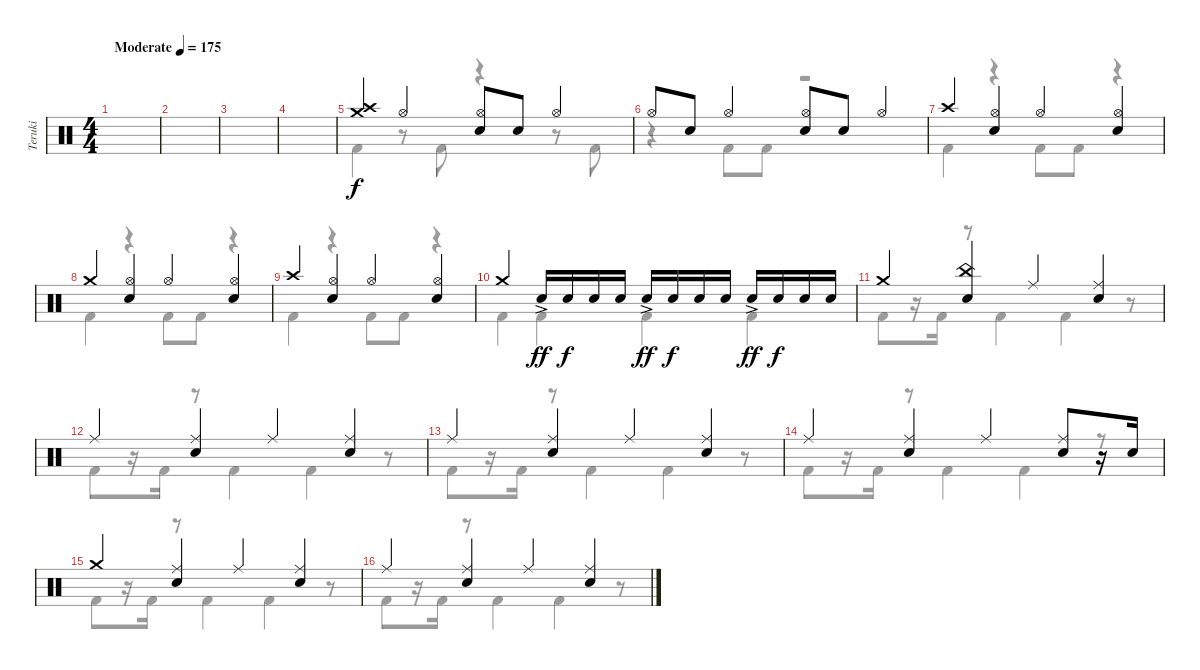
\track ("Teruki" "Teruki") {instrument percussion}
\staff {score}
\articulation defaults
\voice
\ts (4 4)
\tempo (175 "Moderate")
\clef neutral
\ks c
|
|
|
|
("Crash medium (hit)" "Crash high (hit)").4 "Hi-Hat (open)".4 ("Hi-Hat (open)" "Snare (hit) 2").8 "Snare (hit) 2".8 "Hi-Hat (open)".4 |
"Hi-Hat (open)".8 "Snare (hit) 2".8 "Hi-Hat (open)".4 ("Hi-Hat (open)" "Snare (hit) 2").8 "Snare (hit) 2".8 "Hi-Hat (open)".4 |
"Crash high (hit)".4 ("Hi-Hat (open)" "Snare (hit) 2").4 "Hi-Hat (open)".4 ("Hi-Hat (open)" "Snare (hit) 2").4 |
"Crash medium (hit)".4 ("Hi-Hat (open)" "Snare (hit) 2").4 "Hi-Hat (open)".4 ("Hi-Hat (open)" "Snare (hit) 2").4 |
"Crash high (hit)".4 ("Hi-Hat (open)" "Snare (hit) 2").4 "Hi-Hat (open)".4 ("Hi-Hat (open)" "Snare (hit) 2").4 |
"Crash medium (hit)".4 "Snare (hit) 2"{ac}.16{dy ff} "Snare (hit) 2".16{dy f} "Snare (hit) 2".16 "Snare (hit) 2".16 "Snare (hit) 2"{ac}.16{dy ff} "Snare (hit) 2".16{dy f} "Snare (hit) 2".16 "Snare (hit) 2".16 "Snare (hit) 2"{ac}.16{dy ff} "Snare (hit) 2".16{dy f} "Snare (hit) 2".16 "Snare (hit) 2".16 |
"Crash medium (hit)".4 ("China (hit)" "Snare (hit) 2").4 "Ride (middle)".4 ("Ride (middle)" "Snare (hit) 2").4 |
"Ride (middle)".4 ("Ride (middle)" "Snare (hit) 2").4 "Ride (middle)".4 ("Ride (middle)" "Snare (hit) 2").4 |
"Ride (middle)".4 ("Ride (middle)" "Snare (hit) 2").4 "Ride (middle)".4 ("Ride (middle)" "Snare (hit) 2").4 |
"Ride (middle)".4 ("Ride (middle)" "Snare (hit) 2").4 "Ride (middle)".4 ("Ride (middle)" "Snare (hit) 2").8 r.16 "Snare (hit) 2".16 |
"Crash medium (hit)".4 ("Ride (middle)" "Snare (hit) 2").4 "Ride (middle)".4 ("Ride (middle)" "Snare (hit) 2").4 |
"Ride (middle)".4 ("Ride (middle)" "Snare (hit) 2").4 "Ride (middle)".4 ("Ride (middle)" "Snare (hit) 2").4
\voice
\clef neutral
\ottava regular
\simile none
\ks c
|
|
|
|
"Kick (hit) 2".4 r.8 "Kick (hit) 2".8 r.4 r.8 "Kick (hit) 2".8 |
r.4 "Kick (hit) 2".8 "Kick (hit) 2".8 r.2 |
"Kick (hit) 2".4 r.4 "Kick (hit) 2".8 "Kick (hit) 2".8 r.4 |
"Kick (hit) 2".4 r.4 "Kick (hit) 2".8 "Kick (hit) 2".8 r.4 |
"Kick (hit) 2".4 r.4 "Kick (hit) 2".8 "Kick (hit) 2".8 r.4 |
"Kick (hit) 2".4 "Kick (hit) 2".4 "Kick (hit) 2".4 "Kick (hit) 2".4 |
"Kick (hit) 2".8 r.16 "Kick (hit) 2".16 r.8 "Kick (hit) 2".4 "Kick (hit) 2".4 r.8 |
"Kick (hit) 2".8 r.16 "Kick (hit) 2".16 r.8 "Kick (hit) 2".4 "Kick (hit) 2".4 r.8 |
"Kick (hit) 2".8 r.16 "Kick (hit) 2".16 r.8 "Kick (hit) 2".4 "Kick (hit) 2".4 r.8 |
"Kick (hit) 2".8 r.16 "Kick (hit) 2".16 r.8 "Kick (hit) 2".4 "Kick (hit) 2".4 r.8 |
"Kick (hit) 2".8 r.16 "Kick (hit) 2".16 r.8 "Kick (hit) 2".4 "Kick (hit) 2".4 r.8 |
"Kick (hit) 2".8 r.16 "Kick (hit) 2".16 r.8 "Kick (hit) 2".4 "Kick (hit) 2".4 r.8
